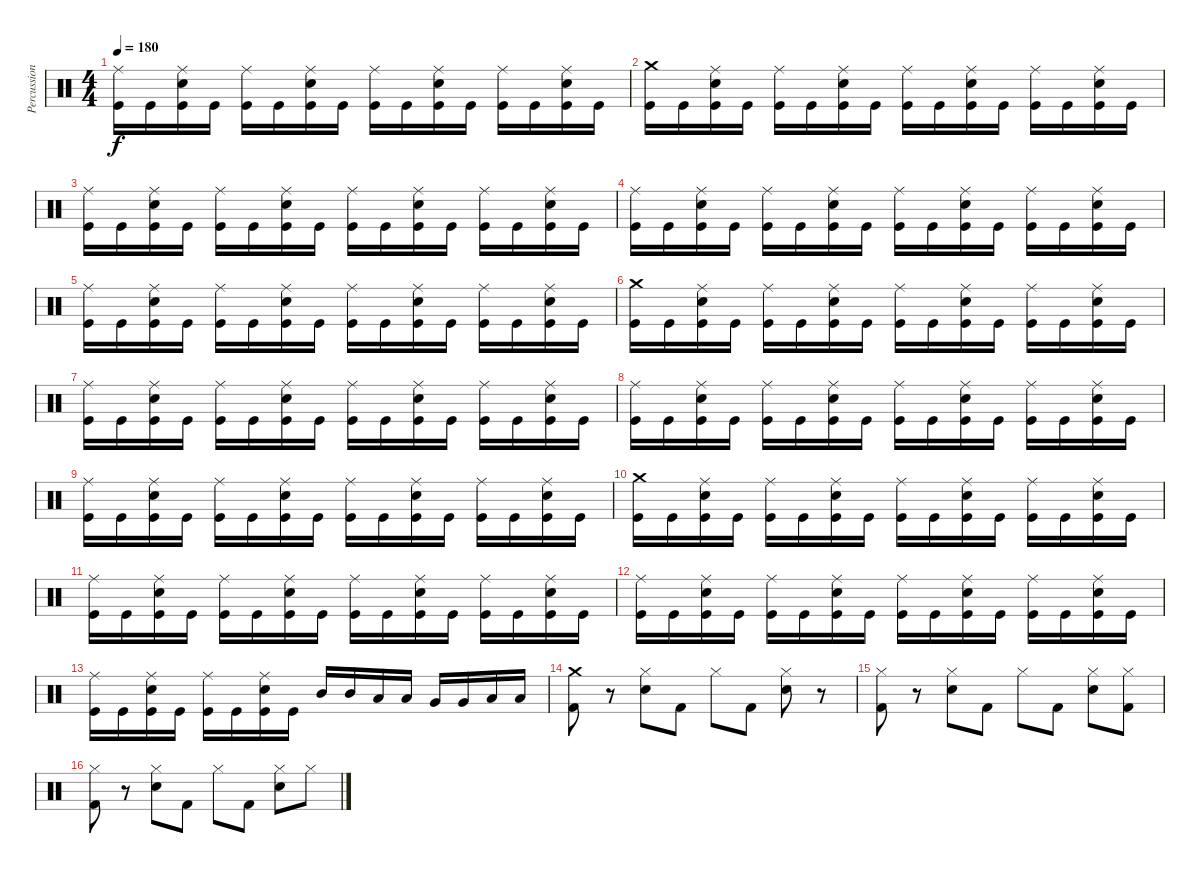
\track ("Percussions" "Percussion") {instrument percussion}
\staff {score}
\articulation defaults
\ts (4 4)
\tempo 180
\clef neutral
\ks c
("Kick (hit)" "Ride (middle)").16{dy f} "Kick (hit)".16 ("Kick (hit)" "Ride (middle)" "Snare (hit) 2").16 "Kick (hit)".16 ("Kick (hit)" "Ride (middle)").16 "Kick (hit)".16 ("Kick (hit)" "Ride (middle)" "Snare (hit) 2").16 "Kick (hit)".16 ("Kick (hit)" "Ride (middle)").16 "Kick (hit)".16 ("Kick (hit)" "Ride (middle)" "Snare (hit) 2").16 "Kick (hit)".16 ("Kick (hit)" "Ride (middle)").16 "Kick (hit)".16 ("Kick (hit)" "Ride (middle)" "Snare (hit) 2").16 "Kick (hit)".16 |
("Kick (hit)" "Crash medium (hit)").16 "Kick (hit)".16 ("Kick (hit)" "Ride (middle)" "Snare (hit) 2").16 "Kick (hit)".16 ("Kick (hit)" "Ride (middle)").16 "Kick (hit)".16 ("Kick (hit)" "Ride (middle)" "Snare (hit) 2").16 "Kick (hit)".16 ("Kick (hit)" "Ride (middle)").16 "Kick (hit)".16 ("Kick (hit)" "Ride (middle)" "Snare (hit) 2").16 "Kick (hit)".16 ("Kick (hit)" "Ride (middle)").16 "Kick (hit)".16 ("Kick (hit)" "Ride (middle)" "Snare (hit) 2").16 "Kick (hit)".16 |
("Kick (hit)" "Ride (middle)").16 "Kick (hit)".16 ("Kick (hit)" "Ride (middle)" "Snare (hit) 2").16 "Kick (hit)".16 ("Kick (hit)" "Ride (middle)").16 "Kick (hit)".16 ("Kick (hit)" "Ride (middle)" "Snare (hit) 2").16 "Kick (hit)".16 ("Kick (hit)" "Ride (middle)").16 "Kick (hit)".16 ("Kick (hit)" "Ride (middle)" "Snare (hit) 2").16 "Kick (hit)".16 ("Kick (hit)" "Ride (middle)").16 "Kick (hit)".16 ("Kick (hit)" "Ride (middle)" "Snare (hit) 2").16 "Kick (hit)".16 |
("Kick (hit)" "Ride (middle)").16 "Kick (hit)".16 ("Kick (hit)" "Ride (middle)" "Snare (hit) 2").16 "Kick (hit)".16 ("Kick (hit)" "Ride (middle)").16 "Kick (hit)".16 ("Kick (hit)" "Ride (middle)" "Snare (hit) 2").16 "Kick (hit)".16 ("Kick (hit)" "Ride (middle)").16 "Kick (hit)".16 ("Kick (hit)" "Ride (middle)" "Snare (hit) 2").16 "Kick (hit)".16 ("Kick (hit)" "Ride (middle)").16 "Kick (hit)".16 ("Kick (hit)" "Ride (middle)" "Snare (hit) 2").16 "Kick (hit)".16 |
("Kick (hit)" "Ride (middle)").16 "Kick (hit)".16 ("Kick (hit)" "Ride (middle)" "Snare (hit) 2").16 "Kick (hit)".16 ("Kick (hit)" "Ride (middle)").16 "Kick (hit)".16 ("Kick (hit)" "Ride (middle)" "Snare (hit) 2").16 "Kick (hit)".16 ("Kick (hit)" "Ride (middle)").16 "Kick (hit)".16 ("Kick (hit)" "Ride (middle)" "Snare (hit) 2").16 "Kick (hit)".16 ("Kick (hit)" "Ride (middle)").16 "Kick (hit)".16 ("Kick (hit)" "Ride (middle)" "Snare (hit) 2").16 "Kick (hit)".16 |
("Kick (hit)" "Crash medium (hit)").16 "Kick (hit)".16 ("Kick (hit)" "Ride (middle)" "Snare (hit) 2").16 "Kick (hit)".16 ("Kick (hit)" "Ride (middle)").16 "Kick (hit)".16 ("Kick (hit)" "Ride (middle)" "Snare (hit) 2").16 "Kick (hit)".16 ("Kick (hit)" "Ride (middle)").16 "Kick (hit)".16 ("Kick (hit)" "Ride (middle)" "Snare (hit) 2").16 "Kick (hit)".16 ("Kick (hit)" "Ride (middle)").16 "Kick (hit)".16 ("Kick (hit)" "Ride (middle)" "Snare (hit) 2").16 "Kick (hit)".16 |
("Kick (hit)" "Ride (middle)").16 "Kick (hit)".16 ("Kick (hit)" "Ride (middle)" "Snare (hit) 2").16 "Kick (hit)".16 ("Kick (hit)" "Ride (middle)").16 "Kick (hit)".16 ("Kick (hit)" "Ride (middle)" "Snare (hit) 2").16 "Kick (hit)".16 ("Kick (hit)" "Ride (middle)").16 "Kick (hit)".16 ("Kick (hit)" "Ride (middle)" "Snare (hit) 2").16 "Kick (hit)".16 ("Kick (hit)" "Ride (middle)").16 "Kick (hit)".16 ("Kick (hit)" "Ride (middle)" "Snare (hit) 2").16 "Kick (hit)".16 |
("Kick (hit)" "Ride (middle)").16 "Kick (hit)".16 ("Kick (hit)" "Ride (middle)" "Snare (hit) 2").16 "Kick (hit)".16 ("Kick (hit)" "Ride (middle)").16 "Kick (hit)".16 ("Kick (hit)" "Ride (middle)" "Snare (hit) 2").16 "Kick (hit)".16 ("Kick (hit)" "Ride (middle)").16 "Kick (hit)".16 ("Kick (hit)" "Ride (middle)" "Snare (hit) 2").16 "Kick (hit)".16 ("Kick (hit)" "Ride (middle)").16 "Kick (hit)".16 ("Kick (hit)" "Ride (middle)" "Snare (hit) 2").16 "Kick (hit)".16 |
("Kick (hit)" "Ride (middle)").16 "Kick (hit)".16 ("Kick (hit)" "Ride (middle)" "Snare (hit) 2").16 "Kick (hit)".16 ("Kick (hit)" "Ride (middle)").16 "Kick (hit)".16 ("Kick (hit)" "Ride (middle)" "Snare (hit) 2").16 "Kick (hit)".16 ("Kick (hit)" "Ride (middle)").16 "Kick (hit)".16 ("Kick (hit)" "Ride (middle)" "Snare (hit) 2").16 "Kick (hit)".16 ("Kick (hit)" "Ride (middle)").16 "Kick (hit)".16 ("Kick (hit)" "Ride (middle)" "Snare (hit) 2").16 "Kick (hit)".16 |
("Kick (hit)" "Crash medium (hit)").16 "Kick (hit)".16 ("Kick (hit)" "Ride (middle)" "Snare (hit) 2").16 "Kick (hit)".16 ("Kick (hit)" "Ride (middle)").16 "Kick (hit)".16 ("Kick (hit)" "Ride (middle)" "Snare (hit) 2").16 "Kick (hit)".16 ("Kick (hit)" "Ride (middle)").16 "Kick (hit)".16 ("Kick (hit)" "Ride (middle)" "Snare (hit) 2").16 "Kick (hit)".16 ("Kick (hit)" "Ride (middle)").16 "Kick (hit)".16 ("Kick (hit)" "Ride (middle)" "Snare (hit) 2").16 "Kick (hit)".16 |
("Kick (hit)" "Ride (middle)").16 "Kick (hit)".16 ("Kick (hit)" "Ride (middle)" "Snare (hit) 2").16 "Kick (hit)".16 ("Kick (hit)" "Ride (middle)").16 "Kick (hit)".16 ("Kick (hit)" "Ride (middle)" "Snare (hit) 2").16 "Kick (hit)".16 ("Kick (hit)" "Ride (middle)").16 "Kick (hit)".16 ("Kick (hit)" "Ride (middle)" "Snare (hit) 2").16 "Kick (hit)".16 ("Kick (hit)" "Ride (middle)").16 "Kick (hit)".16 ("Kick (hit)" "Ride (middle)" "Snare (hit) 2").16 "Kick (hit)".16 |
("Kick (hit)" "Ride (middle)").16 "Kick (hit)".16 ("Kick (hit)" "Ride (middle)" "Snare (hit) 2").16 "Kick (hit)".16 ("Kick (hit)" "Ride (middle)").16 "Kick (hit)".16 ("Kick (hit)" "Ride (middle)" "Snare (hit) 2").16 "Kick (hit)".16 ("Kick (hit)" "Ride (middle)").16 "Kick (hit)".16 ("Kick (hit)" "Ride (middle)" "Snare (hit) 2").16 "Kick (hit)".16 ("Kick (hit)" "Ride (middle)").16 "Kick (hit)".16 ("Kick (hit)" "Ride (middle)" "Snare (hit) 2").16 "Kick (hit)".16 |
("Kick (hit)" "Ride (middle)").16 "Kick (hit)".16 ("Kick (hit)" "Ride (middle)" "Snare (hit) 2").16 "Kick (hit)".16 ("Kick (hit)" "Ride (middle)").16 "Kick (hit)".16 ("Kick (hit)" "Ride (middle)" "Snare (hit) 2").16 "Kick (hit)".16 "Mid Tom (hit)".16 "Mid Tom (hit)".16 "Low Tom (hit)".16 "Low Tom (hit)".16 "Very Low Tom (hit)".16 "Very Low Tom (hit)".16 "Low Floor Tom (hit)".16 "Low Floor Tom (hit)".16 |
("Kick (hit) 2" "Crash medium (hit)").8 r.8 ("Electric Snare (hit)" "Hi-Hat (closed)").8 "Kick (hit) 2".8 "Hi-Hat (closed)".8 "Kick (hit) 2".8 ("Electric Snare (hit)" "Hi-Hat (closed)").8 r.8 |
("Kick (hit) 2" "Hi-Hat (closed)").8 r.8 ("Electric Snare (hit)" "Hi-Hat (closed)").8 "Kick (hit) 2".8 "Hi-Hat (closed)".8 "Kick (hit) 2".8 ("Electric Snare (hit)" "Hi-Hat (closed)").8 ("Kick (hit) 2" "Hi-Hat (closed)").8 |
("Kick (hit) 2" "Hi-Hat (closed)").8 r.8 ("Electric Snare (hit)" "Hi-Hat (closed)").8 "Kick (hit) 2".8 "Hi-Hat (closed)".8 "Kick (hit) 2".8 ("Electric Snare (hit)" "Hi-Hat (closed)").8 "Hi-Hat (closed)".8
